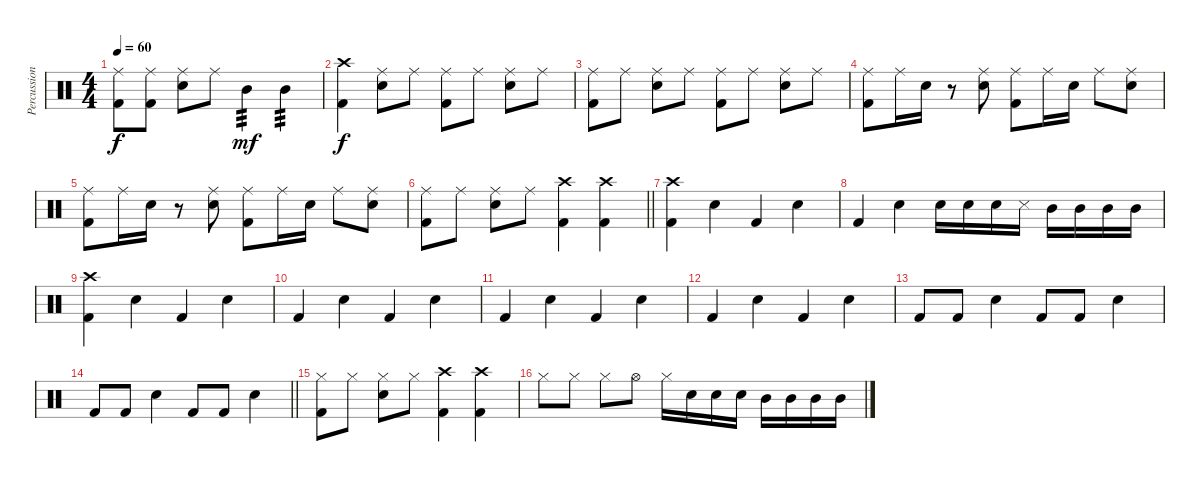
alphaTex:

\track ("Percussion" "Percussion") {instrument percussion}
\staff {score}
\articulation defaults
\ts (4 4)
\tempo 60
\clef neutral
\ks c
("Ride (middle)" "Kick (hit) 2").8{dy f} ("Ride (middle)" "Kick (hit) 2").8 ("Ride (middle)" "Snare (hit) 2").8 "Ride (middle)".8 "Mid Tom (hit)".4{tp 3 dy mf} "Mid Tom (hit)".4{tp 3} |
("Crash high (hit)" "Kick (hit) 2").4{dy f} ("Ride (middle)" "Snare (hit) 2").8 "Ride (middle)".8 ("Ride (middle)" "Kick (hit) 2").8 "Ride (middle)".8 ("Ride (middle)" "Snare (hit) 2").8 "Ride (middle)".8 |
("Ride (middle)" "Kick (hit) 2").8 "Ride (middle)".8 ("Ride (middle)" "Snare (hit) 2").8 "Ride (middle)".8 ("Ride (middle)" "Kick (hit) 2").8 "Ride (middle)".8 ("Ride (middle)" "Snare (hit) 2").8 "Ride (middle)".8 |
("Ride (middle)" "Kick (hit) 2").8 "Ride (middle)".16 "Snare (hit) 2".16 r.8 ("Ride (middle)" "Snare (hit) 2").8 ("Ride (middle)" "Kick (hit) 2").8 "Ride (middle)".16 "Snare (hit) 2".16 "Ride (middle)".8 ("Ride (middle)" "Snare (hit) 2").8 |
("Ride (middle)" "Kick (hit) 2").8 "Ride (middle)".16 "Snare (hit) 2".16 r.8 ("Ride (middle)" "Snare (hit) 2").8 ("Ride (middle)" "Kick (hit) 2").8 "Ride (middle)".16 "Snare (hit) 2".16 "Ride (middle)".8 ("Ride (middle)" "Snare (hit) 2").8 |
\barLineRight lightlight
("Ride (middle)" "Kick (hit) 2").8 "Ride (middle)".8 ("Ride (middle)" "Snare (hit) 2").8 "Ride (middle)".8 ("Crash high (hit)" "Kick (hit) 2").4 ("Crash high (hit)" "Kick (hit) 2").4 |
("Crash high (hit)" "Kick (hit) 2").4 "Snare (hit) 2".4 "Kick (hit) 2".4 "Snare (hit) 2".4 |
"Kick (hit) 2".4 "Snare (hit) 2".4 "Snare (hit) 2".16 "Snare (hit) 2".16 "Snare (hit) 2".16 "Snare (side stick) 3".16 "Mid Tom (hit)".16 "Mid Tom (hit)".16 "Mid Tom (hit)".16 "Mid Tom (hit)".16 |
("Crash high (hit)" "Kick (hit) 2").4 "Snare (hit) 2".4 "Kick (hit) 2".4 "Snare (hit) 2".4 |
"Kick (hit) 2".4 "Snare (hit) 2".4 "Kick (hit) 2".4 "Snare (hit) 2".4 |
"Kick (hit) 2".4 "Snare (hit) 2".4 "Kick (hit) 2".4 "Snare (hit) 2".4 |
"Kick (hit) 2".4 "Snare (hit) 2".4 "Kick (hit) 2".4 "Snare (hit) 2".4 |
"Kick (hit) 2".8 "Kick (hit) 2".8 "Snare (hit) 2".4 "Kick (hit) 2".8 "Kick (hit) 2".8 "Snare (hit) 2".4 |
\barLineRight lightlight "Kick (hit) 2".8 "Kick (hit) 2".8 "Snare (hit) 2".4 "Kick (hit) 2".8 "Kick (hit) 2".8 "Snare (hit) 2".4
|
("Hi-Hat (closed)" "Kick (hit) 2").8 "Hi-Hat (closed)".8 ("Hi-Hat (closed)" "Snare (hit) 2").8 "Hi-Hat (closed)".8 ("Crash high (hit)" "Kick (hit) 2").4 ("Crash high (hit)" "Kick (hit) 2").4 |
"Hi-Hat (closed)".8 "Hi-Hat (closed)".8 "Hi-Hat (closed)".8 "Hi-Hat (open)".8 "Hi-Hat (closed)".16 "Snare (hit) 2".16 "Snare (hit) 2".16 "Snare (hit) 2".16 "Mid Tom (hit)".16 "Mid Tom (hit)".16 "Mid Tom (hit)".16 "Mid Tom (hit)".16
